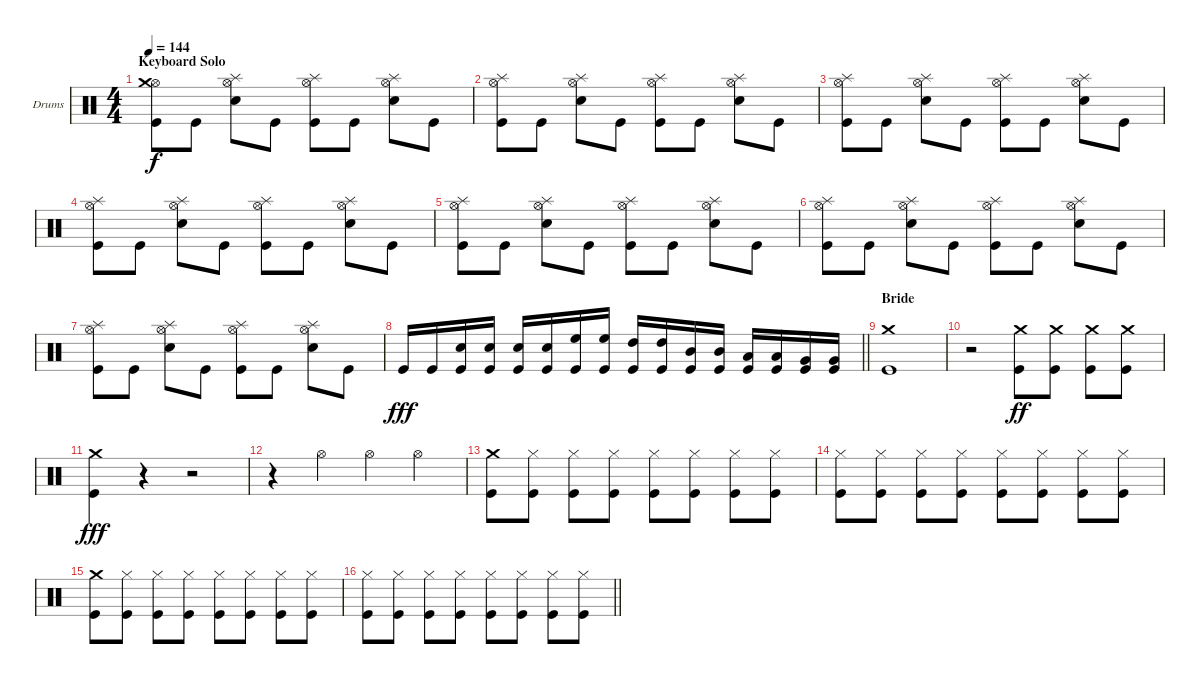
\bracketExtendMode groupsimilarinstruments
\firstSystemTrackNameOrientation horizontal
\otherSystemsTrackNameOrientation horizontal
\track ("Drumkit" "Drums") {instrument percussion}
\staff {score}
\articulation defaults
\ts (4 4)
\section ("" "Keyboard Solo")
\tempo 144
\clef neutral
\ks c
("Kick (hit)" "Hi-Hat (open)" "Crash medium (hit)").8{dy f} "Kick (hit)".8 ("Snare (hit) 2" "Hi-Hat (open)" "Splash (hit)").8 "Kick (hit)".8 ("Kick (hit)" "Hi-Hat (open)" "Splash (hit)").8 "Kick (hit)".8 ("Snare (hit) 2" "Hi-Hat (open)" "Splash (hit)").8 "Kick (hit)".8 |
("Kick (hit)" "Hi-Hat (open)" "Splash (hit)").8 "Kick (hit)".8 ("Snare (hit) 2" "Hi-Hat (open)" "Splash (hit)").8 "Kick (hit)".8 ("Kick (hit)" "Hi-Hat (open)" "Splash (hit)").8 "Kick (hit)".8 ("Snare (hit) 2" "Hi-Hat (open)" "Splash (hit)").8 "Kick (hit)".8 |
("Kick (hit)" "Hi-Hat (open)" "Splash (hit)").8 "Kick (hit)".8 ("Snare (hit) 2" "Hi-Hat (open)" "Splash (hit)").8 "Kick (hit)".8 ("Kick (hit)" "Hi-Hat (open)" "Splash (hit)").8 "Kick (hit)".8 ("Snare (hit) 2" "Hi-Hat (open)" "Splash (hit)").8 "Kick (hit)".8 |
("Kick (hit)" "Hi-Hat (open)" "Splash (hit)").8 "Kick (hit)".8 ("Snare (hit) 2" "Hi-Hat (open)" "Splash (hit)").8 "Kick (hit)".8 ("Kick (hit)" "Hi-Hat (open)" "Splash (hit)").8 "Kick (hit)".8 ("Snare (hit) 2" "Hi-Hat (open)" "Splash (hit)").8 "Kick (hit)".8 |
("Kick (hit)" "Hi-Hat (open)" "Splash (hit)").8 "Kick (hit)".8 ("Snare (hit) 2" "Hi-Hat (open)" "Splash (hit)").8 "Kick (hit)".8 ("Kick (hit)" "Hi-Hat (open)" "Splash (hit)").8 "Kick (hit)".8 ("Snare (hit) 2" "Hi-Hat (open)" "Splash (hit)").8 "Kick (hit)".8 |
("Kick (hit)" "Hi-Hat (open)" "Splash (hit)").8 "Kick (hit)".8 ("Snare (hit) 2" "Hi-Hat (open)" "Splash (hit)").8 "Kick (hit)".8 ("Kick (hit)" "Hi-Hat (open)" "Splash (hit)").8 "Kick (hit)".8 ("Snare (hit) 2" "Hi-Hat (open)" "Splash (hit)").8 "Kick (hit)".8 |
("Kick (hit)" "Hi-Hat (open)" "Splash (hit)").8 "Kick (hit)".8 ("Snare (hit) 2" "Hi-Hat (open)" "Splash (hit)").8 "Kick (hit)".8 ("Kick (hit)" "Hi-Hat (open)" "Splash (hit)").8 "Kick (hit)".8 ("Snare (hit) 2" "Hi-Hat (open)" "Splash (hit)").8 "Kick (hit)".8 |
\barLineRight lightlight "Kick (hit)".16{dy fff} "Kick (hit)".16
("Kick (hit)" "Snare (hit) 2").16 ("Kick (hit)" "Snare (hit) 2").16 ("Kick (hit)" "Snare (hit) 2").16 ("Kick (hit)" "Snare (hit) 2").16 ("Kick (hit)" "High Floor Tom (hit)").16 ("Kick (hit)" "High Floor Tom (hit)").16 ("Kick (hit)" "High Tom (hit)").16 ("Kick (hit)" "High Tom (hit)").16 ("Kick (hit)" "Mid Tom (hit)").16 ("Kick (hit)" "Mid Tom (hit)").16 ("Kick (hit)" "Low Tom (hit)").16 ("Low Tom (hit)" "Kick (hit)").16 ("Kick (hit)" "Very Low Tom (hit)").16 ("Kick (hit)" "Very Low Tom (hit)").16 |
\section ("" "Bride")
("Kick (hit)" "Crash medium (hit)").1 |
r.2 ("Kick (hit)" "Crash medium (hit)").8{dy ff} ("Kick (hit)" "Crash medium (hit)").8 ("Kick (hit)" "Crash medium (hit)").8 ("Kick (hit)" "Crash medium (hit)").8 |
("Kick (hit)" "Crash medium (hit)").4{dy fff} r.4 r.2 |
r.4 "Hi-Hat (open)".4 "Hi-Hat (open)".4 "Hi-Hat (open)".4 |
("Kick (hit)" "Crash medium (hit)").8 ("Hi-Hat (closed)" "Kick (hit)").8 ("Hi-Hat (closed)" "Kick (hit)").8 ("Hi-Hat (closed)" "Kick (hit)").8 ("Hi-Hat (closed)" "Kick (hit)").8 ("Hi-Hat (closed)" "Kick (hit)").8 ("Hi-Hat (closed)" "Kick (hit)").8 ("Hi-Hat (closed)" "Kick (hit)").8 |
("Hi-Hat (closed)" "Kick (hit)").8 ("Hi-Hat (closed)" "Kick (hit)").8 ("Hi-Hat (closed)" "Kick (hit)").8 ("Hi-Hat (closed)" "Kick (hit)").8 ("Hi-Hat (closed)" "Kick (hit)").8 ("Hi-Hat (closed)" "Kick (hit)").8 ("Hi-Hat (closed)" "Kick (hit)").8 ("Hi-Hat (closed)" "Kick (hit)").8 |
("Kick (hit)" "Crash medium (hit)").8 ("Hi-Hat (closed)" "Kick (hit)").8 ("Hi-Hat (closed)" "Kick (hit)").8 ("Hi-Hat (closed)" "Kick (hit)").8 ("Hi-Hat (closed)" "Kick (hit)").8 ("Hi-Hat (closed)" "Kick (hit)").8 ("Hi-Hat (closed)" "Kick (hit)").8 ("Hi-Hat (closed)" "Kick (hit)").8 |
\barLineRight lightlight
("Hi-Hat (closed)" "Kick (hit)").8 ("Hi-Hat (closed)" "Kick (hit)").8 ("Hi-Hat (closed)" "Kick (hit)").8 ("Hi-Hat (closed)" "Kick (hit)").8 ("Hi-Hat (closed)" "Kick (hit)").8 ("Hi-Hat (closed)" "Kick (hit)").8 ("Hi-Hat (closed)" "Kick (hit)").8 ("Hi-Hat (closed)" "Kick (hit)").8
